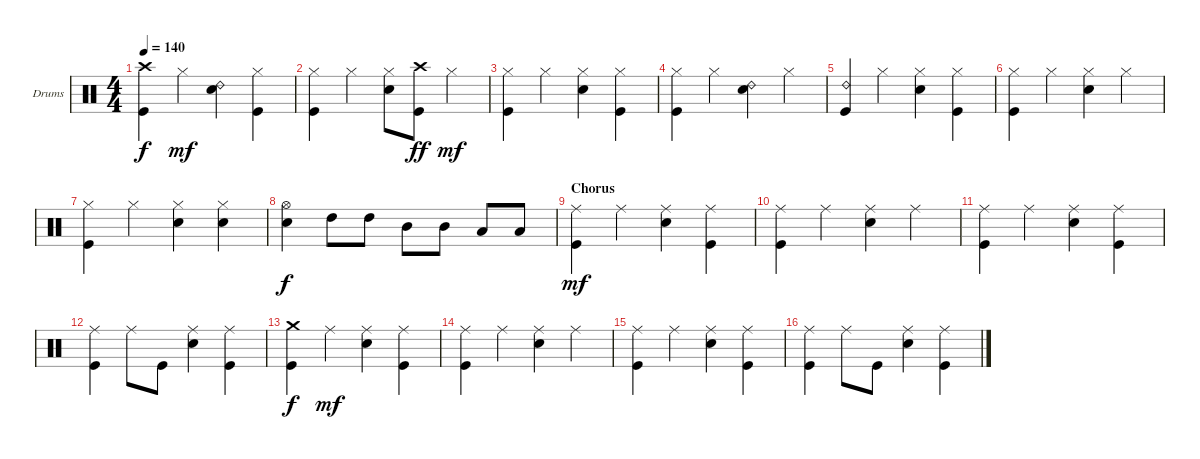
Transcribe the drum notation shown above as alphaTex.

\bracketExtendMode groupsimilarinstruments
\firstSystemTrackNameOrientation horizontal
\otherSystemsTrackNameOrientation horizontal
\track ("Drumkit (Ray Cooper)" "Drums") {instrument percussion}
\staff {score}
\articulation defaults
\ts (4 4)
\tempo 140
\clef neutral
\scale
1.07945
\ks c
("Kick (hit)" "Crash high (hit)").4{dy f} "Hi-Hat (closed)".4{dy mf} ("Snare (hit) 2" "Ride (bell) 2").4 ("Hi-Hat (closed)" "Kick (hit)").4 |
\scale
0.973518 ("Hi-Hat (closed)" "Kick (hit)").4 "Hi-Hat (closed)".4 ("Hi-Hat (closed)" "Snare (hit) 2").8 ("Crash high (hit)" "Kick (hit)").8{dy ff} "Hi-Hat (closed)".4{dy mf} |
\scale
0.973518 ("Kick (hit)" "Hi-Hat (closed)").4 "Hi-Hat (closed)".4 ("Snare (hit) 2" "Hi-Hat (closed)").4 ("Hi-Hat (closed)" "Kick (hit)").4 |
\scale
0.973518 ("Hi-Hat (closed)" "Kick (hit)").4 "Hi-Hat (closed)".4 ("Snare (hit) 2" "Ride (bell) 2").4 "Hi-Hat (closed)".4 |
\scale
1.07945 ("Kick (hit)" "Ride (bell) 2").4 "Hi-Hat (closed)".4 ("Hi-Hat (closed)" "Snare (hit) 2").4 ("Hi-Hat (closed)" "Kick (hit)").4 |
\scale
0.973518 ("Hi-Hat (closed)" "Kick (hit)").4 "Hi-Hat (closed)".4 ("Hi-Hat (closed)" "Snare (hit) 2").4 "Hi-Hat (closed)".4 |
\scale
0.973518 ("Kick (hit)" "Hi-Hat (closed)").4 "Hi-Hat (closed)".4 ("Hi-Hat (closed)" "Snare (hit) 2").4 ("Hi-Hat (closed)" "Snare (hit) 2").4 |
\scale
0.973518 ("Hi-Hat (open)" "Snare (hit) 2").4{dy f} "High Tom (hit)".8 "High Tom (hit)".8 "Mid Tom (hit)".8 "Mid Tom (hit)".8 "Low Tom (hit)".8 "Low Tom (hit)".8 |
\section ("" "Chorus")
\scale
1.07945 ("Kick (hit)" "Ride (middle)").4{dy mf} "Ride (middle)".4 ("Snare (hit) 2" "Ride (middle)").4 ("Kick (hit)" "Ride (middle)").4 |
\scale
0.973518 ("Kick (hit)" "Ride (middle)").4 "Ride (middle)".4 ("Snare (hit) 2" "Ride (middle)").4 "Ride (middle)".4 |
\scale
0.973518 ("Kick (hit)" "Ride (middle)").4 "Ride (middle)".4 ("Snare (hit) 2" "Ride (middle)").4 ("Kick (hit)" "Ride (middle)").4 |
\scale
0.973518 ("Kick (hit)" "Ride (middle)").4 "Ride (middle)".8 "Kick (hit)".8 ("Snare (hit) 2" "Ride (middle)").4 ("Ride (middle)" "Kick (hit)").4 |
\scale
1.07945 ("Kick (hit)" "Crash medium (hit)").4{dy f} "Ride (middle)".4{dy mf} ("Snare (hit) 2" "Ride (middle)").4 ("Kick (hit)" "Ride (middle)").4 |
\scale
0.973518 ("Kick (hit)" "Ride (middle)").4 "Ride (middle)".4 ("Snare (hit) 2" "Ride (middle)").4 "Ride (middle)".4 |
\scale
0.973518 ("Kick (hit)" "Ride (middle)").4 "Ride (middle)".4 ("Snare (hit) 2" "Ride (middle)").4 ("Kick (hit)" "Ride (middle)").4 |
\scale
0.973518 ("Kick (hit)" "Ride (middle)").4 "Ride (middle)".8 "Kick (hit)".8 ("Snare (hit) 2" "Ride (middle)").4 ("Ride (middle)" "Kick (hit)").4
